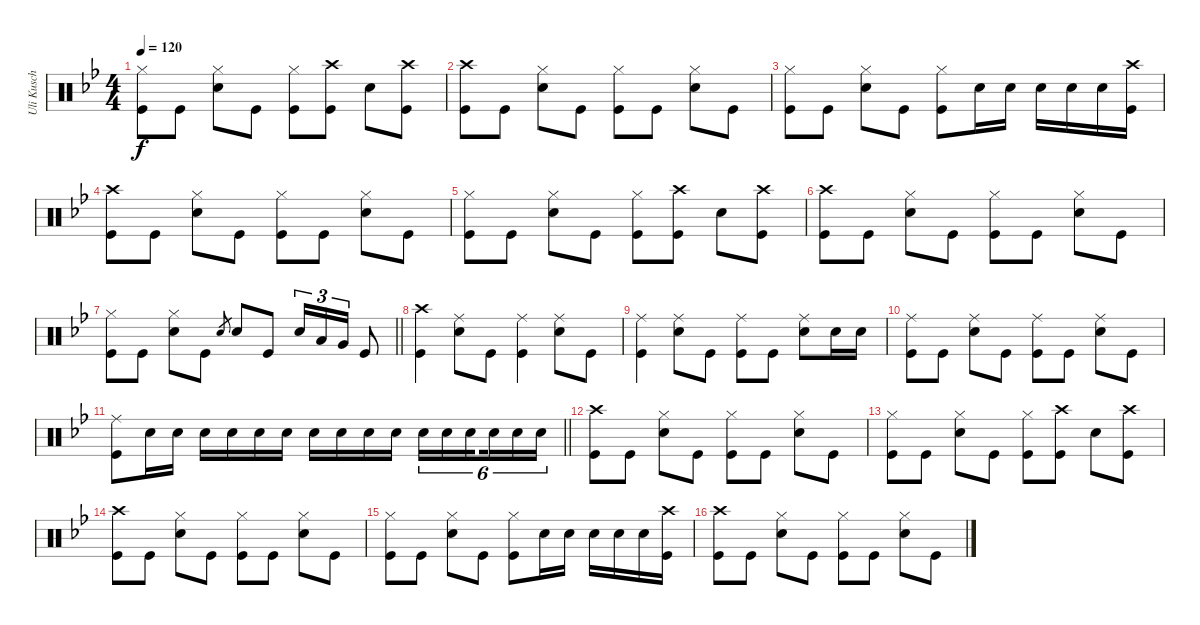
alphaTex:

\track ("Uli Kusch" "Uli Kusch") {instrument percussion}
\staff {score}
\articulation defaults
\ts (4 4)
\tempo 120
\clef neutral
\ks gminor
("Hi-Hat (closed)" "Kick (hit)").8{dy f} "Kick (hit)".8 ("Hi-Hat (closed)" "Snare (hit) 2").8 "Kick (hit)".8 ("Hi-Hat (closed)" "Kick (hit)").8 ("Crash high (hit)" "Kick (hit)").8 "Snare (hit) 2".8 ("Crash high (hit)" "Kick (hit)").8 |
("Crash high (hit)" "Kick (hit)").8 "Kick (hit)".8 ("Hi-Hat (closed)" "Snare (hit) 2").8 "Kick (hit)".8 ("Hi-Hat (closed)" "Kick (hit)").8 "Kick (hit)".8 ("Hi-Hat (closed)" "Snare (hit) 2").8 "Kick (hit)".8 |
("Hi-Hat (closed)" "Kick (hit)").8 "Kick (hit)".8 ("Hi-Hat (closed)" "Snare (hit) 2").8 "Kick (hit)".8 ("Hi-Hat (closed)" "Kick (hit)").8 "Snare (hit) 2".16 "Snare (hit) 2".16 "Snare (hit) 2".16 "Snare (hit) 2".16 "Snare (hit) 2".16 ("Crash high (hit)" "Kick (hit)").16 |
("Crash high (hit)" "Kick (hit)").8 "Kick (hit)".8 ("Hi-Hat (closed)" "Snare (hit) 2").8 "Kick (hit)".8 ("Hi-Hat (closed)" "Kick (hit)").8 "Kick (hit)".8 ("Hi-Hat (closed)" "Snare (hit) 2").8 "Kick (hit)".8 |
("Hi-Hat (closed)" "Kick (hit)").8 "Kick (hit)".8 ("Hi-Hat (closed)" "Snare (hit) 2").8 "Kick (hit)".8 ("Hi-Hat (closed)" "Kick (hit)").8 ("Crash high (hit)" "Kick (hit)").8 "Snare (hit) 2".8 ("Crash high (hit)" "Kick (hit)").8 |
("Crash high (hit)" "Kick (hit)").8 "Kick (hit)".8 ("Hi-Hat (closed)" "Snare (hit) 2").8 "Kick (hit)".8 ("Hi-Hat (closed)" "Kick (hit)").8 "Kick (hit)".8 ("Hi-Hat (closed)" "Snare (hit) 2").8 "Kick (hit)".8 |
\barLineRight lightlight
("Hi-Hat (closed)" "Kick (hit)").8 "Kick (hit)".8 ("Hi-Hat (closed)" "Snare (hit) 2").8 "Kick (hit)".8 "Snare (hit) 2".8{gr} "Snare (hit) 2".8 "Kick (hit)".8 "Snare (hit) 2".16{tu (3 2)} "Low Tom (hit)".16{tu (3 2)} "Very Low Tom (hit)".16{tu (3 2)} "Kick (hit)".8 |
("Crash high (hit)" "Kick (hit)").4 ("Ride (middle)" "Snare (hit) 2").8 "Kick (hit)".8 ("Ride (middle)" "Kick (hit)").4 ("Ride (middle)" "Snare (hit) 2").8 "Kick (hit)".8 |
("Ride (middle)" "Kick (hit)").4 ("Ride (middle)" "Snare (hit) 2").8 "Kick (hit)".8 ("Ride (middle)" "Kick (hit)").8 "Kick (hit)".8 ("Ride (middle)" "Snare (hit) 2").8 "Snare (hit) 2".16 "Snare (hit) 2".16 |
("Ride (middle)" "Kick (hit)").8 "Kick (hit)".8 ("Ride (middle)" "Snare (hit) 2").8 "Kick (hit)".8 ("Ride (middle)" "Kick (hit)").8 "Kick (hit)".8 ("Ride (middle)" "Snare (hit) 2").8 "Kick (hit)".8 |
\barLineRight lightlight
("Ride (middle)" "Kick (hit)").8 "Snare (hit) 2".16 "Snare (hit) 2".16 "Snare (hit) 2".16 "Snare (hit) 2".16 "Snare (hit) 2".16 "Snare (hit) 2".16 "Snare (hit) 2".16 "Snare (hit) 2".16 "Snare (hit) 2".16 "Snare (hit) 2".16 "Snare (hit) 2".16{tu (6 4)} "Snare (hit) 2".16{tu (6 4)} "Snare (hit) 2".16{tu (6 4) beam splitsecondary} "Snare (hit) 2".16{tu (6 4)} "Snare (hit) 2".16{tu (6 4)} "Snare (hit) 2".16{tu (6 4)} |
("Crash high (hit)" "Kick (hit)").8 "Kick (hit)".8 ("Hi-Hat (closed)" "Snare (hit) 2").8 "Kick (hit)".8 ("Hi-Hat (closed)" "Kick (hit)").8 "Kick (hit)".8 ("Hi-Hat (closed)" "Snare (hit) 2").8 "Kick (hit)".8 |
("Hi-Hat (closed)" "Kick (hit)").8 "Kick (hit)".8 ("Hi-Hat (closed)" "Snare (hit) 2").8 "Kick (hit)".8 ("Hi-Hat (closed)" "Kick (hit)").8 ("Crash high (hit)" "Kick (hit)").8 "Snare (hit) 2".8 ("Crash high (hit)" "Kick (hit)").8 |
("Crash high (hit)" "Kick (hit)").8 "Kick (hit)".8 ("Hi-Hat (closed)" "Snare (hit) 2").8 "Kick (hit)".8 ("Hi-Hat (closed)" "Kick (hit)").8 "Kick (hit)".8 ("Hi-Hat (closed)" "Snare (hit) 2").8 "Kick (hit)".8 |
("Hi-Hat (closed)" "Kick (hit)").8 "Kick (hit)".8 ("Hi-Hat (closed)" "Snare (hit) 2").8 "Kick (hit)".8 ("Hi-Hat (closed)" "Kick (hit)").8 "Snare (hit) 2".16 "Snare (hit) 2".16 "Snare (hit) 2".16 "Snare (hit) 2".16 "Snare (hit) 2".16 ("Crash high (hit)" "Kick (hit)").16 |
("Crash high (hit)" "Kick (hit)").8 "Kick (hit)".8 ("Hi-Hat (closed)" "Snare (hit) 2").8 "Kick (hit)".8 ("Hi-Hat (closed)" "Kick (hit)").8 "Kick (hit)".8 ("Hi-Hat (closed)" "Snare (hit) 2").8 "Kick (hit)".8
